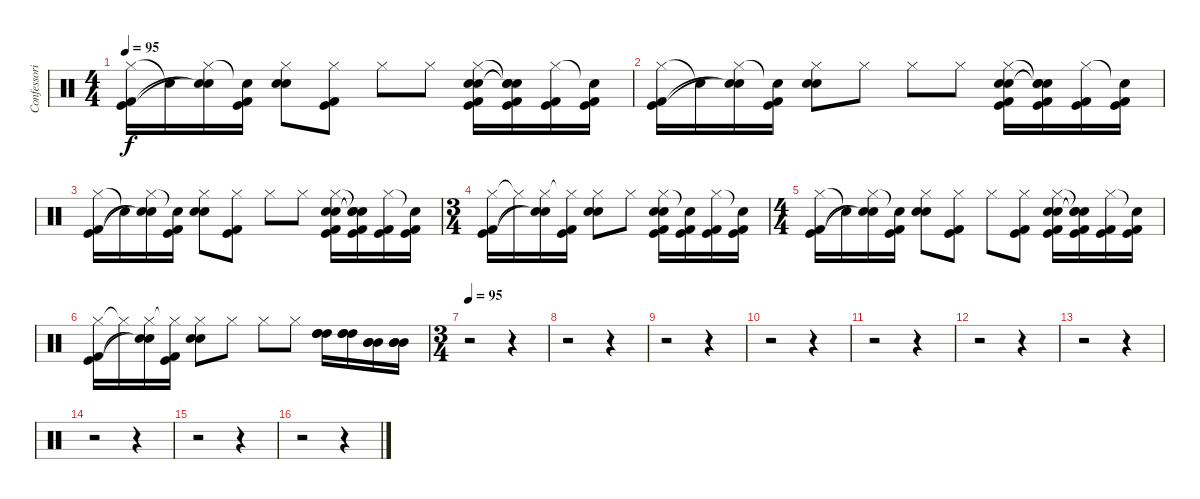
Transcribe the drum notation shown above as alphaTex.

\track ("Confessori" "Confessori") {instrument percussion}
\staff {score}
\articulation defaults
\ts (4 4)
\tempo 95
\clef neutral
\ks c
("Hi-Hat (closed)" "Kick (hit)" "Kick (hit) 2").16{dy f} "Snare (hit)"{t}.16 ("Hi-Hat (closed)" "Snare (hit)"{t} "Snare (hit)"{t}).16 ("Snare (hit)"{t} "Kick (hit)" "Kick (hit) 2").16 ("Hi-Hat (closed)" "Electric Snare (hit)" "Snare (hit) 2").8 ("Hi-Hat (closed)" "Kick (hit)" "Kick (hit) 2").8 "Hi-Hat (closed)".8 "Hi-Hat (closed)".8 ("Hi-Hat (closed)" "Electric Snare (hit)" "Snare (hit) 2" "Kick (hit)" "Kick (hit) 2").16 ("Snare (hit)"{t} "Snare (hit)"{t} "Snare (hit)"{t} "Kick (hit)" "Kick (hit) 2").16 ("Hi-Hat (closed)" "Kick (hit)" "Kick (hit) 2").16 ("Snare (hit)"{t} "Kick (hit)" "Kick (hit) 2").16 |
("Hi-Hat (closed)" "Kick (hit)" "Kick (hit) 2").16 "Snare (hit)"{t}.16 ("Hi-Hat (closed)" "Snare (hit)"{t} "Snare (hit)"{t}).16 ("Snare (hit)"{t} "Kick (hit)" "Kick (hit) 2").16 ("Hi-Hat (closed)" "Electric Snare (hit)" "Snare (hit) 2").8 "Hi-Hat (closed)".8 "Hi-Hat (closed)".8 "Hi-Hat (closed)".8 ("Hi-Hat (closed)" "Electric Snare (hit)" "Snare (hit) 2" "Kick (hit)" "Kick (hit) 2").16 ("Snare (hit)"{t} "Snare (hit)"{t} "Snare (hit)"{t} "Kick (hit)" "Kick (hit) 2").16 ("Hi-Hat (closed)" "Kick (hit)" "Kick (hit) 2").16 ("Snare (hit)"{t} "Kick (hit)" "Kick (hit) 2").16 |
("Hi-Hat (closed)" "Kick (hit)" "Kick (hit) 2").16 "Snare (hit)"{t}.16 ("Hi-Hat (closed)" "Snare (hit)"{t} "Snare (hit)"{t}).16 ("Snare (hit)"{t} "Kick (hit)" "Kick (hit) 2").16 ("Hi-Hat (closed)" "Electric Snare (hit)" "Snare (hit) 2").8 ("Hi-Hat (closed)" "Kick (hit)" "Kick (hit) 2").8 "Hi-Hat (closed)".8 "Hi-Hat (closed)".8 ("Hi-Hat (closed)" "Electric Snare (hit)" "Snare (hit) 2" "Kick (hit)" "Kick (hit) 2").16 ("Snare (hit)"{t} "Snare (hit)"{t} "Snare (hit)"{t} "Kick (hit)" "Kick (hit) 2").16 ("Hi-Hat (closed)" "Kick (hit)" "Kick (hit) 2").16 ("Snare (hit)"{t} "Kick (hit)" "Kick (hit) 2").16 |
\ts (3 4)
("Hi-Hat (closed)" "Kick (hit)" "Kick (hit) 2").16 "Hi-Hat (closed)"{t}.16 ("Hi-Hat (closed)" "Snare (hit)"{t} "Snare (hit)"{t}).16 ("Hi-Hat (closed)"{t} "Kick (hit) 2" "Kick (hit)").16 ("Hi-Hat (closed)" "Electric Snare (hit)" "Snare (hit) 2").8 "Hi-Hat (closed)".8 ("Hi-Hat (closed)" "Electric Snare (hit)" "Snare (hit) 2" "Kick (hit)" "Kick (hit) 2").16 ("Snare (hit)"{t} "Kick (hit)" "Kick (hit) 2").16 ("Hi-Hat (closed)" "Kick (hit)" "Kick (hit) 2").16 ("Snare (hit)"{t} "Kick (hit)" "Kick (hit) 2").16 |
\ts (4 4)
("Hi-Hat (closed)" "Kick (hit)" "Kick (hit) 2").16 "Snare (hit)"{t}.16 ("Hi-Hat (closed)" "Snare (hit)"{t} "Snare (hit)"{t}).16 ("Snare (hit)"{t} "Kick (hit)" "Kick (hit) 2").16 ("Hi-Hat (closed)" "Electric Snare (hit)" "Snare (hit) 2").8 ("Hi-Hat (closed)" "Kick (hit)" "Kick (hit) 2").8 "Hi-Hat (closed)".8 ("Hi-Hat (closed)" "Kick (hit)" "Kick (hit) 2").8 ("Hi-Hat (closed)" "Electric Snare (hit)" "Snare (hit) 2" "Kick (hit)" "Kick (hit) 2").16 ("Snare (hit)"{t} "Snare (hit)"{t} "Snare (hit)"{t} "Kick (hit)" "Kick (hit) 2").16 ("Hi-Hat (closed)" "Kick (hit)" "Kick (hit) 2").16 ("Snare (hit)"{t} "Kick (hit)" "Kick (hit) 2").16 |
("Hi-Hat (closed)" "Kick (hit)" "Kick (hit) 2").16 "Hi-Hat (closed)"{t}.16 ("Hi-Hat (closed)" "Snare (hit)"{t} "Snare (hit)"{t}).16 ("Hi-Hat (closed)"{t} "Kick (hit)" "Kick (hit) 2").16 ("Hi-Hat (closed)" "Electric Snare (hit)" "Snare (hit) 2").8 "Hi-Hat (closed)".8 "Hi-Hat (closed)".8 "Hi-Hat (closed)".8 ("High Tom (hit)" "High Tom (hit)" "High Tom (hit)").16 ("High Tom (hit)" "High Tom (hit)" "High Tom (hit)").16 ("Mid Tom (hit)" "Mid Tom (hit)" "Mid Tom (hit)").16 ("Mid Tom (hit)" "Mid Tom (hit)" "Mid Tom (hit)").16 |
\ts (3 4)
\tempo 95
r.2 r.4 |
r.2 r.4 |
r.2 r.4 |
r.2 r.4 |
r.2 r.4 |
r.2 r.4 |
r.2 r.4 |
r.2 r.4 |
r.2 r.4 |
r.2 r.4
